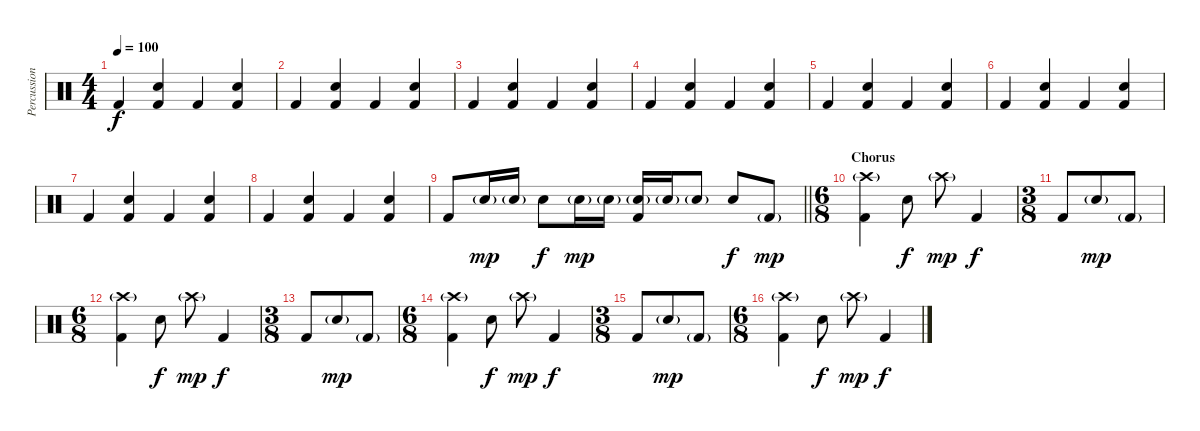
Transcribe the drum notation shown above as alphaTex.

\track ("Percussion" "Percussion") {instrument percussion}
\staff {score}
\articulation defaults
\ts (4 4)
\tempo 100
\clef neutral
\ks c "Kick (hit) 2".4{dy f}
("Snare (hit) 2" "Kick (hit) 2").4 "Kick (hit) 2".4 ("Snare (hit) 2" "Kick (hit) 2").4 |
"Kick (hit) 2".4 ("Snare (hit) 2" "Kick (hit) 2").4 "Kick (hit) 2".4 ("Snare (hit) 2" "Kick (hit) 2").4 |
"Kick (hit) 2".4 ("Snare (hit) 2" "Kick (hit) 2").4 "Kick (hit) 2".4 ("Snare (hit) 2" "Kick (hit) 2").4 |
"Kick (hit) 2".4 ("Snare (hit) 2" "Kick (hit) 2").4 "Kick (hit) 2".4 ("Snare (hit) 2" "Kick (hit) 2").4 |
"Kick (hit) 2".4 ("Snare (hit) 2" "Kick (hit) 2").4 "Kick (hit) 2".4 ("Snare (hit) 2" "Kick (hit) 2").4 |
"Kick (hit) 2".4 ("Snare (hit) 2" "Kick (hit) 2").4 "Kick (hit) 2".4 ("Snare (hit) 2" "Kick (hit) 2").4 |
"Kick (hit) 2".4 ("Snare (hit) 2" "Kick (hit) 2").4 "Kick (hit) 2".4 ("Snare (hit) 2" "Kick (hit) 2").4 |
"Kick (hit) 2".4 ("Snare (hit) 2" "Kick (hit) 2").4 "Kick (hit) 2".4 ("Snare (hit) 2" "Kick (hit) 2").4 |
\barLineRight lightlight "Kick (hit) 2".8 "Snare (hit) 2"{g}.16{dy mp} "Snare (hit) 2"{g}.16 "Snare (hit) 2".8{dy f} "Snare (hit) 2"{g}.16{dy mp} "Snare (hit) 2"{g}.16
("Snare (hit) 2"{g} "Kick (hit) 2").16 "Snare (hit) 2"{g}.16 "Snare (hit) 2"{g}.8 "Snare (hit) 2".8{dy f} "Kick (hit) 2"{g}.8{dy mp} |
\ts (6 8)
\section ("" "Chorus")
("Crash high (hit)"{g} "Kick (hit) 2").4 "Snare (hit) 2".8{dy f} "Crash high (hit)"{g}.8{dy mp} "Kick (hit) 2".4{dy f} |
\ts (3 8)
"Kick (hit) 2".8 "Snare (hit) 2"{g}.8{dy mp} "Kick (hit) 2"{g}.8 |
\ts (6 8)
("Crash high (hit)"{g} "Kick (hit) 2").4 "Snare (hit) 2".8{dy f} "Crash high (hit)"{g}.8{dy mp} "Kick (hit) 2".4{dy f} |
\ts (3 8)
"Kick (hit) 2".8 "Snare (hit) 2"{g}.8{dy mp} "Kick (hit) 2"{g}.8 |
\ts (6 8)
("Crash high (hit)"{g} "Kick (hit) 2").4 "Snare (hit) 2".8{dy f} "Crash high (hit)"{g}.8{dy mp} "Kick (hit) 2".4{dy f} |
\ts (3 8)
"Kick (hit) 2".8 "Snare (hit) 2"{g}.8{dy mp} "Kick (hit) 2"{g}.8 |
\ts (6 8)
("Crash high (hit)"{g} "Kick (hit) 2").4 "Snare (hit) 2".8{dy f} "Crash high (hit)"{g}.8{dy mp} "Kick (hit) 2".4{dy f}
